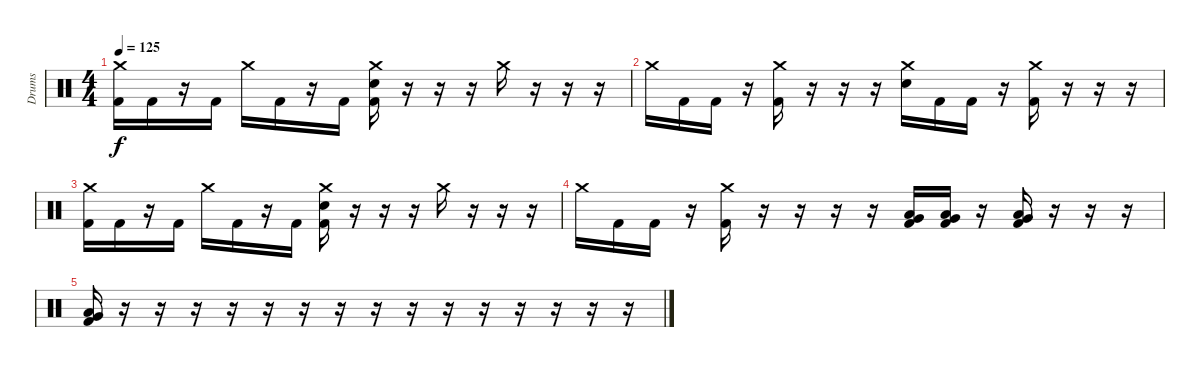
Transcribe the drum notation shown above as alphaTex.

\track ("Drums" "Drums") {instrument percussion}
\staff {score}
\articulation defaults
\ts (4 4)
\tempo 125
\clef neutral
\ks c
("Crash medium (hit)" "Kick (hit) 2").16{dy f} "Kick (hit) 2".16 r.16 "Kick (hit) 2".16 "Crash medium (hit)".16 "Kick (hit) 2".16 r.16 "Kick (hit) 2".16 ("Crash medium (hit)" "Electric Snare (hit)" "Kick (hit) 2").16 r.16 r.16 r.16 "Crash medium (hit)".16 r.16 r.16 r.16 |
"Crash medium (hit)".16 "Kick (hit) 2".16 "Kick (hit) 2".16 r.16 ("Crash medium (hit)" "Kick (hit) 2").16 r.16 r.16 r.16 ("Crash medium (hit)" "Electric Snare (hit)").16 "Kick (hit) 2".16 "Kick (hit) 2".16 r.16 ("Crash medium (hit)" "Kick (hit) 2").16 r.16 r.16 r.16 |
("Crash medium (hit)" "Kick (hit) 2").16 "Kick (hit) 2".16 r.16 "Kick (hit) 2".16 "Crash medium (hit)".16 "Kick (hit) 2".16 r.16 "Kick (hit) 2".16 ("Crash medium (hit)" "Electric Snare (hit)" "Kick (hit) 2").16 r.16 r.16 r.16 "Crash medium (hit)".16 r.16 r.16 r.16 |
"Crash medium (hit)".16 "Kick (hit) 2".16 "Kick (hit) 2".16 r.16 ("Crash medium (hit)" "Kick (hit) 2").16 r.16 r.16 r.16 r.16 ("Very Low Tom (hit)" "Low Floor Tom (hit)" "Kick (hit) 2").16 ("Very Low Tom (hit)" "Low Floor Tom (hit)" "Kick (hit) 2").16 r.16 ("Very Low Tom (hit)" "Low Floor Tom (hit)" "Kick (hit) 2").16 r.16 r.16 r.16 |
("Low Floor Tom (hit)" "Very Low Tom (hit)" "Kick (hit) 2").16 r.16 r.16 r.16 r.16 r.16 r.16 r.16 r.16 r.16 r.16 r.16 r.16 r.16 r.16 r.16
